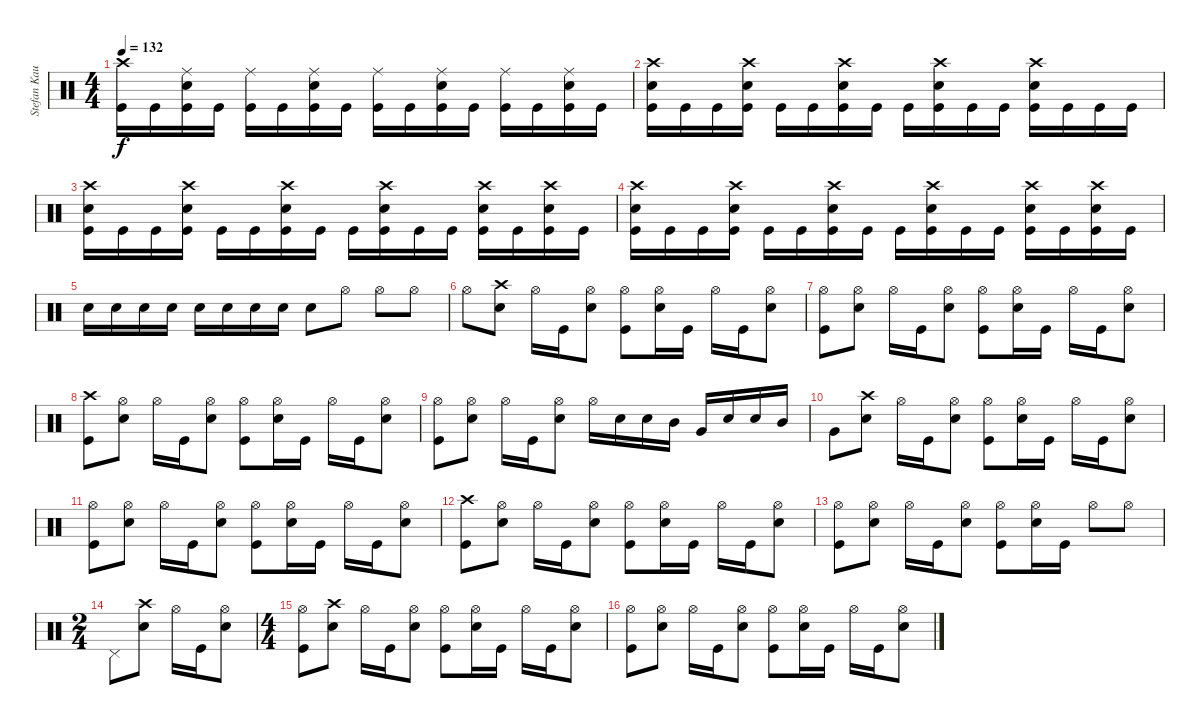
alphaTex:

\track ("Stefan Kaufmann" "Stefan Kau") {instrument percussion}
\staff {score}
\articulation defaults
\ts (4 4)
\tempo 132
\clef neutral
\ks c
("Crash high (hit)" "Kick (hit)").16{dy f} "Kick (hit)".16 ("Ride (middle)" "Snare (hit) 2" "Kick (hit)").16 "Kick (hit)".16 ("Ride (middle)" "Kick (hit)").16 "Kick (hit)".16 ("Ride (middle)" "Snare (hit) 2" "Kick (hit)").16 "Kick (hit)".16 ("Ride (middle)" "Kick (hit)").16 "Kick (hit)".16 ("Ride (middle)" "Snare (hit) 2" "Kick (hit)").16 "Kick (hit)".16 ("Ride (middle)" "Kick (hit)").16 "Kick (hit)".16 ("Ride (middle)" "Snare (hit) 2" "Kick (hit)").16 "Kick (hit)".16 |
("Crash high (hit)" "Snare (hit) 2" "Kick (hit)").16 "Kick (hit)".16 "Kick (hit)".16 ("Crash high (hit)" "Snare (hit) 2" "Kick (hit)").16 "Kick (hit)".16 "Kick (hit)".16 ("Crash high (hit)" "Snare (hit) 2" "Kick (hit)").16 "Kick (hit)".16 "Kick (hit)".16 ("Crash high (hit)" "Snare (hit) 2" "Kick (hit)").16 "Kick (hit)".16 "Kick (hit)".16 ("Crash high (hit)" "Snare (hit) 2" "Kick (hit)").16 "Kick (hit)".16 "Kick (hit)".16 "Kick (hit)".16 |
("Crash high (hit)" "Snare (hit) 2" "Kick (hit)").16 "Kick (hit)".16 "Kick (hit)".16 ("Crash high (hit)" "Snare (hit) 2" "Kick (hit)").16 "Kick (hit)".16 "Kick (hit)".16 ("Crash high (hit)" "Snare (hit) 2" "Kick (hit)").16 "Kick (hit)".16 "Kick (hit)".16 ("Crash high (hit)" "Snare (hit) 2" "Kick (hit)").16 "Kick (hit)".16 "Kick (hit)".16 ("Crash high (hit)" "Snare (hit) 2" "Kick (hit)").16 "Kick (hit)".16 ("Crash high (hit)" "Snare (hit) 2" "Kick (hit)").16 "Kick (hit)".16 |
("Crash high (hit)" "Snare (hit) 2" "Kick (hit)").16 "Kick (hit)".16 "Kick (hit)".16 ("Crash high (hit)" "Snare (hit) 2" "Kick (hit)").16 "Kick (hit)".16 "Kick (hit)".16 ("Crash high (hit)" "Snare (hit) 2" "Kick (hit)").16 "Kick (hit)".16 "Kick (hit)".16 ("Crash high (hit)" "Snare (hit) 2" "Kick (hit)").16 "Kick (hit)".16 "Kick (hit)".16 ("Crash high (hit)" "Snare (hit) 2" "Kick (hit)").16 "Kick (hit)".16 ("Crash high (hit)" "Snare (hit) 2" "Kick (hit)").16 "Kick (hit)".16 |
"Snare (hit) 2".16 "Snare (hit) 2".16 "Snare (hit) 2".16 "Snare (hit) 2".16 "Snare (hit) 2".16 "Snare (hit) 2".16 "Snare (hit) 2".16 "Snare (hit) 2".16 "Snare (hit) 2".8 "Hi-Hat (open)".8 "Hi-Hat (open)".8 "Hi-Hat (open)".8 |
"Hi-Hat (open)".8 ("Crash high (hit)" "Snare (hit) 2").8 "Hi-Hat (open)".16 "Kick (hit)".16 ("Hi-Hat (open)" "Snare (hit) 2").8 ("Hi-Hat (open)" "Kick (hit)").8 ("Hi-Hat (open)" "Snare (hit) 2").16 "Kick (hit)".16 "Hi-Hat (open)".16 "Kick (hit)".16 ("Hi-Hat (open)" "Snare (hit) 2").8 |
("Hi-Hat (open)" "Kick (hit)").8 ("Hi-Hat (open)" "Snare (hit) 2").8 "Hi-Hat (open)".16 "Kick (hit)".16 ("Hi-Hat (open)" "Snare (hit) 2").8 ("Hi-Hat (open)" "Kick (hit)").8 ("Hi-Hat (open)" "Snare (hit) 2").16 "Kick (hit)".16 "Hi-Hat (open)".16 "Kick (hit)".16 ("Hi-Hat (open)" "Snare (hit) 2").8 |
("Crash high (hit)" "Kick (hit)").8 ("Hi-Hat (open)" "Snare (hit) 2").8 "Hi-Hat (open)".16 "Kick (hit)".16 ("Hi-Hat (open)" "Snare (hit) 2").8 ("Hi-Hat (open)" "Kick (hit)").8 ("Hi-Hat (open)" "Snare (hit) 2").16 "Kick (hit)".16 "Hi-Hat (open)".16 "Kick (hit)".16 ("Hi-Hat (open)" "Snare (hit) 2").8 |
("Hi-Hat (open)" "Kick (hit)").8 ("Hi-Hat (open)" "Snare (hit) 2").8 "Hi-Hat (open)".16 "Kick (hit)".16 ("Hi-Hat (open)" "Snare (hit) 2").8 "Hi-Hat (open)".16 "Snare (hit) 2".16 "Snare (hit) 2".16 "Mid Tom (hit)".16 "Very Low Tom (hit)".16 "Snare (hit) 2".16 "Snare (hit) 2".16 "Mid Tom (hit)".16 |
"Very Low Tom (hit)".8 ("Crash high (hit)" "Snare (hit) 2").8 "Hi-Hat (open)".16 "Kick (hit)".16 ("Hi-Hat (open)" "Snare (hit) 2").8 ("Hi-Hat (open)" "Kick (hit)").8 ("Hi-Hat (open)" "Snare (hit) 2").16 "Kick (hit)".16 "Hi-Hat (open)".16 "Kick (hit)".16 ("Hi-Hat (open)" "Snare (hit) 2").8 |
("Hi-Hat (open)" "Kick (hit)").8 ("Hi-Hat (open)" "Snare (hit) 2").8 "Hi-Hat (open)".16 "Kick (hit)".16 ("Hi-Hat (open)" "Snare (hit) 2").8 ("Hi-Hat (open)" "Kick (hit)").8 ("Hi-Hat (open)" "Snare (hit) 2").16 "Kick (hit)".16 "Hi-Hat (open)".16 "Kick (hit)".16 ("Hi-Hat (open)" "Snare (hit) 2").8 |
("Crash high (hit)" "Kick (hit)").8 ("Hi-Hat (open)" "Snare (hit) 2").8 "Hi-Hat (open)".16 "Kick (hit)".16 ("Hi-Hat (open)" "Snare (hit) 2").8 ("Hi-Hat (open)" "Kick (hit)").8 ("Hi-Hat (open)" "Snare (hit) 2").16 "Kick (hit)".16 "Hi-Hat (open)".16 "Kick (hit)".16 ("Hi-Hat (open)" "Snare (hit) 2").8 |
("Hi-Hat (open)" "Kick (hit)").8 ("Hi-Hat (open)" "Snare (hit) 2").8 "Hi-Hat (open)".16 "Kick (hit)".16 ("Hi-Hat (open)" "Snare (hit) 2").8 ("Hi-Hat (open)" "Kick (hit)").8 ("Hi-Hat (open)" "Snare (hit) 2").16 "Kick (hit)".16 "Hi-Hat (open)".8 "Hi-Hat (open)".8 |
\ts (2 4)
"Pedal Hi-Hat (hit)".8 ("Crash high (hit)" "Snare (hit) 2").8 "Hi-Hat (open)".16 "Kick (hit)".16 ("Hi-Hat (open)" "Snare (hit) 2").8 |
\ts (4 4)
("Hi-Hat (open)" "Kick (hit)").8 ("Crash high (hit)" "Snare (hit) 2").8 "Hi-Hat (open)".16 "Kick (hit)".16 ("Hi-Hat (open)" "Snare (hit) 2").8 ("Hi-Hat (open)" "Kick (hit)").8 ("Hi-Hat (open)" "Snare (hit) 2").16 "Kick (hit)".16 "Hi-Hat (open)".16 "Kick (hit)".16 ("Hi-Hat (open)" "Snare (hit) 2").8 |
("Hi-Hat (open)" "Kick (hit)").8 ("Hi-Hat (open)" "Snare (hit) 2").8 "Hi-Hat (open)".16 "Kick (hit)".16 ("Hi-Hat (open)" "Snare (hit) 2").8 ("Hi-Hat (open)" "Kick (hit)").8 ("Hi-Hat (open)" "Snare (hit) 2").16 "Kick (hit)".16 "Hi-Hat (open)".16 "Kick (hit)".16 ("Hi-Hat (open)" "Snare (hit) 2").8
